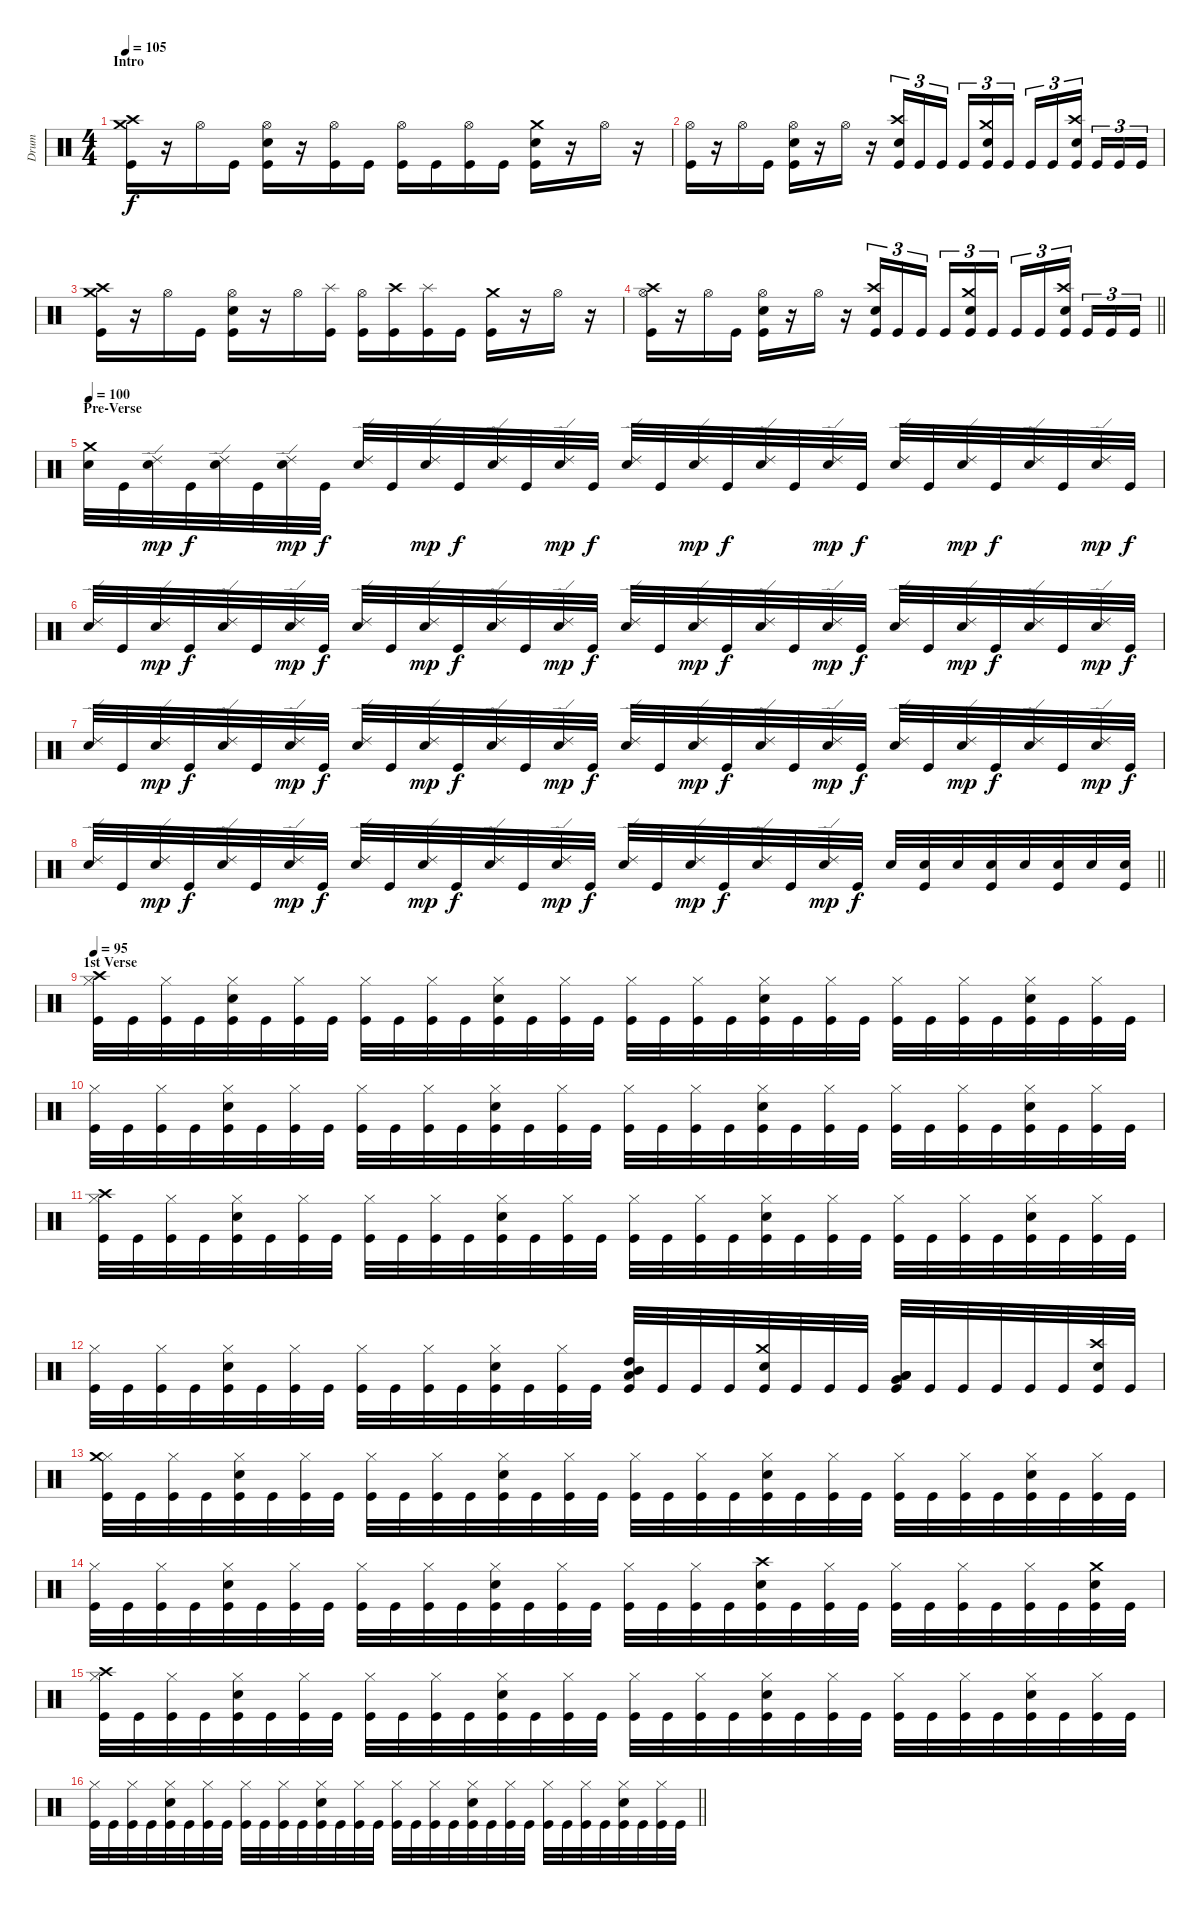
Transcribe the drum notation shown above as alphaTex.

\track ("Drum" "Drum") {instrument percussion}
\staff {score}
\articulation defaults
\ts (4 4)
\section ("" "Intro")
\tempo 105
\clef neutral
\ks c
("Kick (hit)" "Crash medium (hit)" "Crash high (hit)").16{dy f} r.16 "Hi-Hat (open)".16 "Kick (hit)".16 ("Kick (hit)" "Hi-Hat (open)" "Electric Snare (hit)").16 r.16 ("Kick (hit)" "Hi-Hat (open)").16 "Kick (hit)".16 ("Kick (hit)" "Hi-Hat (open)").16 "Kick (hit)".16 ("Kick (hit)" "Hi-Hat (open)").16 "Kick (hit)".16 ("Kick (hit)" "Electric Snare (hit)" "Crash medium (hit)").16 r.16 "Hi-Hat (open)".16 r.16 |
("Kick (hit)" "Hi-Hat (open)").16 r.16 "Hi-Hat (open)".16 "Kick (hit)".16 ("Kick (hit)" "Hi-Hat (open)" "Electric Snare (hit)").16 r.16 "Hi-Hat (open)".16 r.16 ("Kick (hit)" "Electric Snare (hit)" "Crash high (hit)").16{tu (3 2)} "Kick (hit)".16{tu (3 2)} "Kick (hit)".16{tu (3 2)} "Kick (hit)".16{tu (3 2)} ("Kick (hit)" "Electric Snare (hit)" "Crash medium (hit)").16{tu (3 2)} "Kick (hit)".16{tu (3 2)} "Kick (hit)".16{tu (3 2)} "Kick (hit)".16{tu (3 2)} ("Kick (hit)" "Electric Snare (hit)" "Crash high (hit)").16{tu (3 2)} "Kick (hit)".16{tu (3 2)} "Kick (hit)".16{tu (3 2)} "Kick (hit)".16{tu (3 2)} |
("Kick (hit)" "Crash medium (hit)" "Crash high (hit)").16 r.16 "Hi-Hat (open)".16 "Kick (hit)".16 ("Kick (hit)" "Hi-Hat (open)" "Electric Snare (hit)").16 r.16 "Hi-Hat (open)".16 ("Kick (hit)" "Splash (hit)").16 ("Kick (hit)" "Hi-Hat (open)").16 ("Kick (hit)" "Crash high (hit)").16 ("Kick (hit)" "Splash (hit)").16 "Kick (hit)".16 ("Kick (hit)" "Crash medium (hit)").16 r.16 "Hi-Hat (open)".16 r.16 |
\barLineRight lightlight
("Kick (hit)" "Hi-Hat (open)" "Crash high (hit)").16 r.16 "Hi-Hat (open)".16 "Kick (hit)".16 ("Kick (hit)" "Hi-Hat (open)" "Electric Snare (hit)").16 r.16 "Hi-Hat (open)".16 r.16 ("Kick (hit)" "Electric Snare (hit)" "Crash high (hit)").16{tu (3 2)} "Kick (hit)".16{tu (3 2)} "Kick (hit)".16{tu (3 2)} "Kick (hit)".16{tu (3 2)} ("Kick (hit)" "Electric Snare (hit)" "Crash medium (hit)").16{tu (3 2)} "Kick (hit)".16{tu (3 2)} "Kick (hit)".16{tu (3 2)} "Kick (hit)".16{tu (3 2)} ("Kick (hit)" "Electric Snare (hit)" "Crash high (hit)").16{tu (3 2)} "Kick (hit)".16{tu (3 2)} "Kick (hit)".16{tu (3 2)} "Kick (hit)".16{tu (3 2)} |
\section ("" "Pre-Verse")
\tempo 100
("Snare (hit) 2" "Crash medium (hit)").32 "Kick (hit)".32 ("Ride (edge) 2" "Snare (hit) 2").32{dy mp} "Kick (hit)".32{dy f} ("Ride (edge) 2" "Snare (hit) 2").32 "Kick (hit)".32 ("Ride (edge) 2" "Snare (hit) 2").32{dy mp} "Kick (hit)".32{dy f} ("Ride (edge) 2" "Snare (hit) 2").32 "Kick (hit)".32 ("Ride (edge) 2" "Snare (hit) 2").32{dy mp} "Kick (hit)".32{dy f} ("Ride (edge) 2" "Snare (hit) 2").32 "Kick (hit)".32 ("Ride (edge) 2" "Snare (hit) 2").32{dy mp} "Kick (hit)".32{dy f} ("Ride (edge) 2" "Snare (hit) 2").32 "Kick (hit)".32 ("Ride (edge) 2" "Snare (hit) 2").32{dy mp} "Kick (hit)".32{dy f} ("Ride (edge) 2" "Snare (hit) 2").32 "Kick (hit)".32 ("Ride (edge) 2" "Snare (hit) 2").32{dy mp} "Kick (hit)".32{dy f} ("Ride (edge) 2" "Snare (hit) 2").32 "Kick (hit)".32 ("Ride (edge) 2" "Snare (hit) 2").32{dy mp} "Kick (hit)".32{dy f} ("Ride (edge) 2" "Snare (hit) 2").32 "Kick (hit)".32 ("Ride (edge) 2" "Snare (hit) 2").32{dy mp} "Kick (hit)".32{dy f} |
("Ride (edge) 2" "Snare (hit) 2").32 "Kick (hit)".32 ("Ride (edge) 2" "Snare (hit) 2").32{dy mp} "Kick (hit)".32{dy f} ("Ride (edge) 2" "Snare (hit) 2").32 "Kick (hit)".32 ("Ride (edge) 2" "Snare (hit) 2").32{dy mp} "Kick (hit)".32{dy f} ("Ride (edge) 2" "Snare (hit) 2").32 "Kick (hit)".32 ("Ride (edge) 2" "Snare (hit) 2").32{dy mp} "Kick (hit)".32{dy f} ("Ride (edge) 2" "Snare (hit) 2").32 "Kick (hit)".32 ("Ride (edge) 2" "Snare (hit) 2").32{dy mp} "Kick (hit)".32{dy f} ("Ride (edge) 2" "Snare (hit) 2").32 "Kick (hit)".32 ("Ride (edge) 2" "Snare (hit) 2").32{dy mp} "Kick (hit)".32{dy f} ("Ride (edge) 2" "Snare (hit) 2").32 "Kick (hit)".32 ("Ride (edge) 2" "Snare (hit) 2").32{dy mp} "Kick (hit)".32{dy f} ("Ride (edge) 2" "Snare (hit) 2").32 "Kick (hit)".32 ("Ride (edge) 2" "Snare (hit) 2").32{dy mp} "Kick (hit)".32{dy f} ("Ride (edge) 2" "Snare (hit) 2").32 "Kick (hit)".32 ("Ride (edge) 2" "Snare (hit) 2").32{dy mp} "Kick (hit)".32{dy f} |
("Ride (edge) 2" "Snare (hit) 2").32 "Kick (hit)".32 ("Ride (edge) 2" "Snare (hit) 2").32{dy mp} "Kick (hit)".32{dy f} ("Ride (edge) 2" "Snare (hit) 2").32 "Kick (hit)".32 ("Ride (edge) 2" "Snare (hit) 2").32{dy mp} "Kick (hit)".32{dy f} ("Ride (edge) 2" "Snare (hit) 2").32 "Kick (hit)".32 ("Ride (edge) 2" "Snare (hit) 2").32{dy mp} "Kick (hit)".32{dy f} ("Ride (edge) 2" "Snare (hit) 2").32 "Kick (hit)".32 ("Ride (edge) 2" "Snare (hit) 2").32{dy mp} "Kick (hit)".32{dy f} ("Ride (edge) 2" "Snare (hit) 2").32 "Kick (hit)".32 ("Ride (edge) 2" "Snare (hit) 2").32{dy mp} "Kick (hit)".32{dy f} ("Ride (edge) 2" "Snare (hit) 2").32 "Kick (hit)".32 ("Ride (edge) 2" "Snare (hit) 2").32{dy mp} "Kick (hit)".32{dy f} ("Ride (edge) 2" "Snare (hit) 2").32 "Kick (hit)".32 ("Ride (edge) 2" "Snare (hit) 2").32{dy mp} "Kick (hit)".32{dy f} ("Ride (edge) 2" "Snare (hit) 2").32 "Kick (hit)".32 ("Ride (edge) 2" "Snare (hit) 2").32{dy mp} "Kick (hit)".32{dy f} |
\barLineRight lightlight
("Ride (edge) 2" "Snare (hit) 2").32 "Kick (hit)".32 ("Ride (edge) 2" "Snare (hit) 2").32{dy mp} "Kick (hit)".32{dy f} ("Ride (edge) 2" "Snare (hit) 2").32 "Kick (hit)".32 ("Ride (edge) 2" "Snare (hit) 2").32{dy mp} "Kick (hit)".32{dy f} ("Ride (edge) 2" "Snare (hit) 2").32 "Kick (hit)".32 ("Ride (edge) 2" "Snare (hit) 2").32{dy mp} "Kick (hit)".32{dy f} ("Ride (edge) 2" "Snare (hit) 2").32 "Kick (hit)".32 ("Ride (edge) 2" "Snare (hit) 2").32{dy mp} "Kick (hit)".32{dy f} ("Ride (edge) 2" "Snare (hit) 2").32 "Kick (hit)".32 ("Ride (edge) 2" "Snare (hit) 2").32{dy mp} "Kick (hit)".32{dy f} ("Ride (edge) 2" "Snare (hit) 2").32 "Kick (hit)".32 ("Ride (edge) 2" "Snare (hit) 2").32{dy mp} "Kick (hit)".32{dy f} "Snare (hit) 2".32 ("Kick (hit)" "Snare (hit) 2").32 "Snare (hit) 2".32 ("Kick (hit)" "Snare (hit) 2").32 "Snare (hit) 2".32 ("Kick (hit)" "Snare (hit) 2").32 "Snare (hit) 2".32 ("Kick (hit)" "Snare (hit) 2").32 |
\section ("" "1st Verse")
\tempo 95
("Kick (hit)" "Hi-Hat (closed)" "Crash high (hit)").32 "Kick (hit)".32 ("Kick (hit)" "Hi-Hat (closed)").32 "Kick (hit)".32 ("Kick (hit)" "Hi-Hat (closed)" "Electric Snare (hit)").32 "Kick (hit)".32 ("Kick (hit)" "Hi-Hat (closed)").32 "Kick (hit)".32 ("Kick (hit)" "Hi-Hat (closed)").32 "Kick (hit)".32 ("Kick (hit)" "Hi-Hat (closed)").32 "Kick (hit)".32 ("Kick (hit)" "Hi-Hat (closed)" "Electric Snare (hit)").32 "Kick (hit)".32 ("Kick (hit)" "Hi-Hat (closed)").32 "Kick (hit)".32 ("Kick (hit)" "Hi-Hat (closed)").32 "Kick (hit)".32 ("Kick (hit)" "Hi-Hat (closed)").32 "Kick (hit)".32 ("Kick (hit)" "Hi-Hat (closed)" "Electric Snare (hit)").32 "Kick (hit)".32 ("Kick (hit)" "Hi-Hat (closed)").32 "Kick (hit)".32 ("Kick (hit)" "Hi-Hat (closed)").32 "Kick (hit)".32 ("Kick (hit)" "Hi-Hat (closed)").32 "Kick (hit)".32 ("Kick (hit)" "Hi-Hat (closed)" "Electric Snare (hit)").32 "Kick (hit)".32 ("Kick (hit)" "Hi-Hat (closed)").32 "Kick (hit)".32 |
("Kick (hit)" "Hi-Hat (closed)").32 "Kick (hit)".32 ("Kick (hit)" "Hi-Hat (closed)").32 "Kick (hit)".32 ("Kick (hit)" "Hi-Hat (closed)" "Electric Snare (hit)").32 "Kick (hit)".32 ("Kick (hit)" "Hi-Hat (closed)").32 "Kick (hit)".32 ("Kick (hit)" "Hi-Hat (closed)").32 "Kick (hit)".32 ("Kick (hit)" "Hi-Hat (closed)").32 "Kick (hit)".32 ("Kick (hit)" "Hi-Hat (closed)" "Electric Snare (hit)").32 "Kick (hit)".32 ("Kick (hit)" "Hi-Hat (closed)").32 "Kick (hit)".32 ("Kick (hit)" "Hi-Hat (closed)").32 "Kick (hit)".32 ("Kick (hit)" "Hi-Hat (closed)").32 "Kick (hit)".32 ("Kick (hit)" "Hi-Hat (closed)" "Electric Snare (hit)").32 "Kick (hit)".32 ("Kick (hit)" "Hi-Hat (closed)").32 "Kick (hit)".32 ("Kick (hit)" "Hi-Hat (closed)").32 "Kick (hit)".32 ("Kick (hit)" "Hi-Hat (closed)").32 "Kick (hit)".32 ("Kick (hit)" "Hi-Hat (closed)" "Electric Snare (hit)").32 "Kick (hit)".32 ("Kick (hit)" "Hi-Hat (closed)").32 "Kick (hit)".32 |
("Kick (hit)" "Hi-Hat (closed)" "Crash high (hit)").32 "Kick (hit)".32 ("Kick (hit)" "Hi-Hat (closed)").32 "Kick (hit)".32 ("Kick (hit)" "Hi-Hat (closed)" "Electric Snare (hit)").32 "Kick (hit)".32 ("Kick (hit)" "Hi-Hat (closed)").32 "Kick (hit)".32 ("Kick (hit)" "Hi-Hat (closed)").32 "Kick (hit)".32 ("Kick (hit)" "Hi-Hat (closed)").32 "Kick (hit)".32 ("Kick (hit)" "Hi-Hat (closed)" "Electric Snare (hit)").32 "Kick (hit)".32 ("Kick (hit)" "Hi-Hat (closed)").32 "Kick (hit)".32 ("Kick (hit)" "Hi-Hat (closed)").32 "Kick (hit)".32 ("Kick (hit)" "Hi-Hat (closed)").32 "Kick (hit)".32 ("Kick (hit)" "Hi-Hat (closed)" "Electric Snare (hit)").32 "Kick (hit)".32 ("Kick (hit)" "Hi-Hat (closed)").32 "Kick (hit)".32 ("Kick (hit)" "Hi-Hat (closed)").32 "Kick (hit)".32 ("Kick (hit)" "Hi-Hat (closed)").32 "Kick (hit)".32 ("Kick (hit)" "Hi-Hat (closed)" "Electric Snare (hit)").32 "Kick (hit)".32 ("Kick (hit)" "Hi-Hat (closed)").32 "Kick (hit)".32 |
("Kick (hit)" "Hi-Hat (closed)").32 "Kick (hit)".32 ("Kick (hit)" "Hi-Hat (closed)").32 "Kick (hit)".32 ("Kick (hit)" "Hi-Hat (closed)" "Electric Snare (hit)").32 "Kick (hit)".32 ("Kick (hit)" "Hi-Hat (closed)").32 "Kick (hit)".32 ("Kick (hit)" "Hi-Hat (closed)").32 "Kick (hit)".32 ("Kick (hit)" "Hi-Hat (closed)").32 "Kick (hit)".32 ("Kick (hit)" "Hi-Hat (closed)" "Electric Snare (hit)").32 "Kick (hit)".32 ("Kick (hit)" "Hi-Hat (closed)").32 "Kick (hit)".32 ("Kick (hit)" "High Tom (hit)" "Mid Tom (hit)" "Low Tom (hit)").32{bd 480} "Kick (hit)".32 "Kick (hit)".32 "Kick (hit)".32 ("Kick (hit)" "Electric Snare (hit)" "Crash medium (hit)").32 "Kick (hit)".32 "Kick (hit)".32 "Kick (hit)".32 ("Kick (hit)" "Low Tom (hit)" "Very Low Tom (hit)" "Low Floor Tom (hit)").32{bd 480} "Kick (hit)".32 "Kick (hit)".32 "Kick (hit)".32 "Kick (hit)".32 "Kick (hit)".32 ("Kick (hit)" "Electric Snare (hit)" "Crash high (hit)").32 "Kick (hit)".32 |
("Kick (hit)" "Hi-Hat (closed)" "Crash medium (hit)").32 "Kick (hit)".32 ("Kick (hit)" "Hi-Hat (closed)").32 "Kick (hit)".32 ("Kick (hit)" "Hi-Hat (closed)" "Electric Snare (hit)").32 "Kick (hit)".32 ("Kick (hit)" "Hi-Hat (closed)").32 "Kick (hit)".32 ("Kick (hit)" "Hi-Hat (closed)").32 "Kick (hit)".32 ("Kick (hit)" "Hi-Hat (closed)").32 "Kick (hit)".32 ("Kick (hit)" "Hi-Hat (closed)" "Electric Snare (hit)").32 "Kick (hit)".32 ("Kick (hit)" "Hi-Hat (closed)").32 "Kick (hit)".32 ("Kick (hit)" "Hi-Hat (closed)").32 "Kick (hit)".32 ("Kick (hit)" "Hi-Hat (closed)").32 "Kick (hit)".32 ("Kick (hit)" "Hi-Hat (closed)" "Electric Snare (hit)").32 "Kick (hit)".32 ("Kick (hit)" "Hi-Hat (closed)").32 "Kick (hit)".32 ("Kick (hit)" "Hi-Hat (closed)").32 "Kick (hit)".32 ("Kick (hit)" "Hi-Hat (closed)").32 "Kick (hit)".32 ("Kick (hit)" "Hi-Hat (closed)" "Electric Snare (hit)").32 "Kick (hit)".32 ("Kick (hit)" "Hi-Hat (closed)").32 "Kick (hit)".32 |
("Kick (hit)" "Hi-Hat (closed)").32 "Kick (hit)".32 ("Kick (hit)" "Hi-Hat (closed)").32 "Kick (hit)".32 ("Kick (hit)" "Hi-Hat (closed)" "Electric Snare (hit)").32 "Kick (hit)".32 ("Kick (hit)" "Hi-Hat (closed)").32 "Kick (hit)".32 ("Kick (hit)" "Hi-Hat (closed)").32 "Kick (hit)".32 ("Kick (hit)" "Hi-Hat (closed)").32 "Kick (hit)".32 ("Kick (hit)" "Hi-Hat (closed)" "Electric Snare (hit)").32 "Kick (hit)".32 ("Kick (hit)" "Hi-Hat (closed)").32 "Kick (hit)".32 ("Kick (hit)" "Hi-Hat (closed)").32 "Kick (hit)".32 ("Kick (hit)" "Hi-Hat (closed)").32 "Kick (hit)".32 ("Kick (hit)" "Electric Snare (hit)" "Crash high (hit)").32 "Kick (hit)".32 ("Kick (hit)" "Hi-Hat (closed)").32 "Kick (hit)".32 ("Kick (hit)" "Hi-Hat (closed)").32 "Kick (hit)".32 ("Kick (hit)" "Hi-Hat (closed)").32 "Kick (hit)".32 ("Kick (hit)" "Hi-Hat (closed)").32 "Kick (hit)".32 ("Kick (hit)" "Electric Snare (hit)" "Crash medium (hit)").32 "Kick (hit)".32 |
("Kick (hit)" "Hi-Hat (closed)" "Crash high (hit)").32 "Kick (hit)".32 ("Kick (hit)" "Hi-Hat (closed)").32 "Kick (hit)".32 ("Kick (hit)" "Hi-Hat (closed)" "Electric Snare (hit)").32 "Kick (hit)".32 ("Kick (hit)" "Hi-Hat (closed)").32 "Kick (hit)".32 ("Kick (hit)" "Hi-Hat (closed)").32 "Kick (hit)".32 ("Kick (hit)" "Hi-Hat (closed)").32 "Kick (hit)".32 ("Kick (hit)" "Hi-Hat (closed)" "Electric Snare (hit)").32 "Kick (hit)".32 ("Kick (hit)" "Hi-Hat (closed)").32 "Kick (hit)".32 ("Kick (hit)" "Hi-Hat (closed)").32 "Kick (hit)".32 ("Kick (hit)" "Hi-Hat (closed)").32 "Kick (hit)".32 ("Kick (hit)" "Hi-Hat (closed)" "Electric Snare (hit)").32 "Kick (hit)".32 ("Kick (hit)" "Hi-Hat (closed)").32 "Kick (hit)".32 ("Kick (hit)" "Hi-Hat (closed)").32 "Kick (hit)".32 ("Kick (hit)" "Hi-Hat (closed)").32 "Kick (hit)".32 ("Kick (hit)" "Hi-Hat (closed)" "Electric Snare (hit)").32 "Kick (hit)".32 ("Kick (hit)" "Hi-Hat (closed)").32 "Kick (hit)".32 |
\barLineRight lightlight
("Kick (hit)" "Hi-Hat (closed)").32 "Kick (hit)".32 ("Kick (hit)" "Hi-Hat (closed)").32 "Kick (hit)".32 ("Kick (hit)" "Hi-Hat (closed)" "Electric Snare (hit)").32 "Kick (hit)".32 ("Kick (hit)" "Hi-Hat (closed)").32 "Kick (hit)".32 ("Kick (hit)" "Hi-Hat (closed)").32 "Kick (hit)".32 ("Kick (hit)" "Hi-Hat (closed)").32 "Kick (hit)".32 ("Kick (hit)" "Hi-Hat (closed)" "Electric Snare (hit)").32 "Kick (hit)".32 ("Kick (hit)" "Hi-Hat (closed)").32 "Kick (hit)".32 ("Kick (hit)" "Hi-Hat (closed)").32 "Kick (hit)".32 ("Kick (hit)" "Hi-Hat (closed)").32 "Kick (hit)".32 ("Kick (hit)" "Hi-Hat (closed)" "Electric Snare (hit)").32 "Kick (hit)".32 ("Kick (hit)" "Hi-Hat (closed)").32 "Kick (hit)".32 ("Kick (hit)" "Hi-Hat (closed)").32 "Kick (hit)".32 ("Kick (hit)" "Hi-Hat (closed)").32 "Kick (hit)".32 ("Kick (hit)" "Hi-Hat (closed)" "Electric Snare (hit)").32 "Kick (hit)".32 ("Kick (hit)" "Hi-Hat (closed)").32 "Kick (hit)".32
